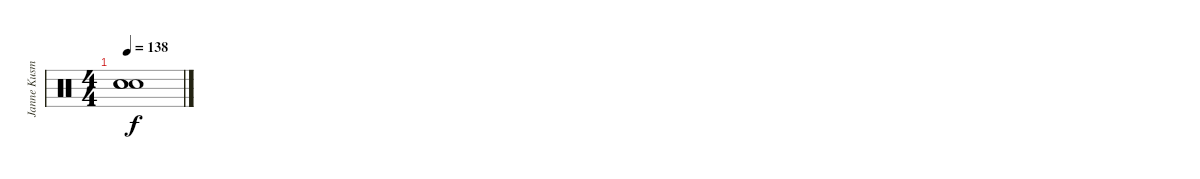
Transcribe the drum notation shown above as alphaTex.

\track ("Janne Kusmin" "Janne Kusm") {instrument percussion}
\staff {score}
\articulation defaults
\ts (4 4)
\tempo 138
\clef neutral
\ks c
("Snare (hit)"{t} "Snare (hit)"{t} "Snare (hit)"{t}).1{dy f}
